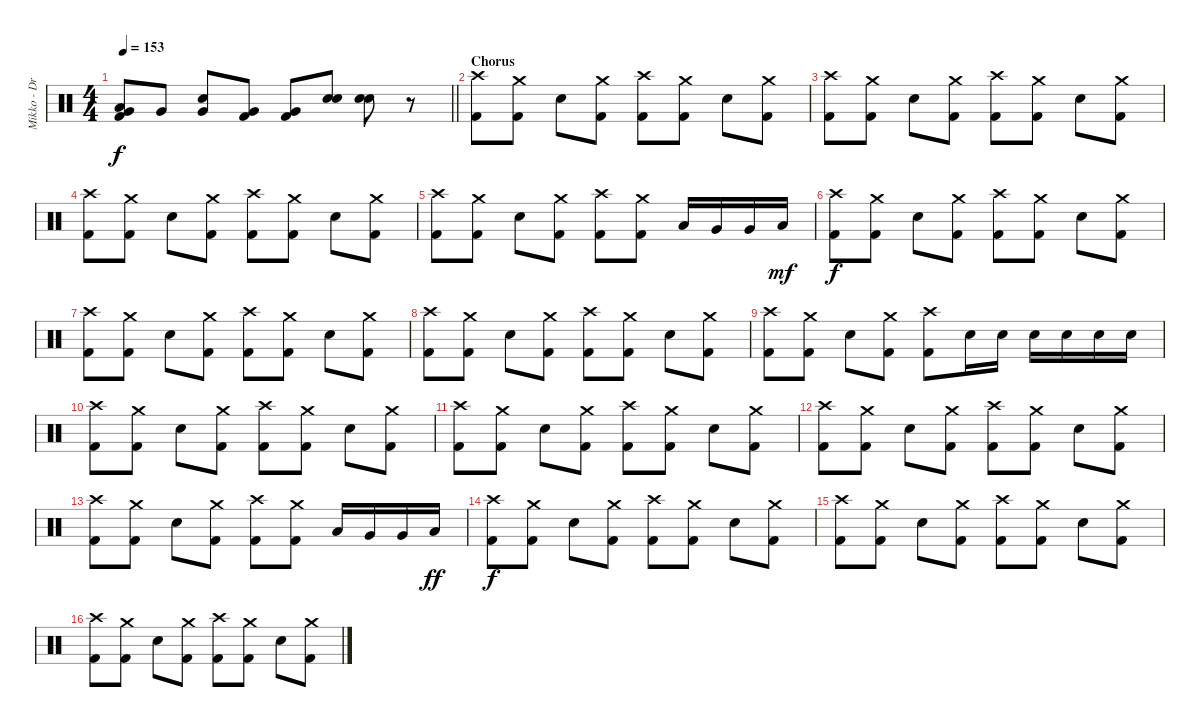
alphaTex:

\track ("Mikko - Drums" "Mikko - Dr") {instrument percussion}
\staff {score}
\articulation defaults
\ts (4 4)
\tempo 153
\clef neutral
\barLineRight lightlight
\ks c
("Low Tom (hit)" "Very Low Tom (hit)" "Kick (hit) 2").8{dy f} "Very Low Tom (hit)".8 ("Snare (hit) 2" "Very Low Tom (hit)").8 ("Very Low Tom (hit)" "Kick (hit) 2").8 ("Very Low Tom (hit)" "Kick (hit) 2").8 ("Hand Clap (hit)" "Snare (hit) 2").8 ("Hand Clap (hit)" "Snare (hit) 2").8 r.8 |
\section ("" "Chorus")
("Crash high (hit)" "Kick (hit) 2").8 ("Crash medium (hit)" "Kick (hit) 2").8 "Snare (hit) 2".8 ("Crash medium (hit)" "Kick (hit) 2").8 ("Crash high (hit)" "Kick (hit) 2").8 ("Crash medium (hit)" "Kick (hit) 2").8 "Snare (hit) 2".8 ("Crash medium (hit)" "Kick (hit) 2").8 |
("Crash high (hit)" "Kick (hit) 2").8 ("Crash medium (hit)" "Kick (hit) 2").8 "Snare (hit) 2".8 ("Crash medium (hit)" "Kick (hit) 2").8 ("Crash high (hit)" "Kick (hit) 2").8 ("Crash medium (hit)" "Kick (hit) 2").8 "Snare (hit) 2".8 ("Crash medium (hit)" "Kick (hit) 2").8 |
("Crash high (hit)" "Kick (hit) 2").8 ("Crash medium (hit)" "Kick (hit) 2").8 "Snare (hit) 2".8 ("Crash medium (hit)" "Kick (hit) 2").8 ("Crash high (hit)" "Kick (hit) 2").8 ("Crash medium (hit)" "Kick (hit) 2").8 "Snare (hit) 2".8 ("Crash medium (hit)" "Kick (hit) 2").8 |
("Crash high (hit)" "Kick (hit) 2").8 ("Crash medium (hit)" "Kick (hit) 2").8 "Snare (hit) 2".8 ("Crash medium (hit)" "Kick (hit) 2").8 ("Crash high (hit)" "Kick (hit) 2").8 ("Crash medium (hit)" "Kick (hit) 2").8 "Low Tom (hit)".16 "Very Low Tom (hit)".16 "Very Low Tom (hit)".16 "Low Tom (hit)".16{dy mf} |
("Crash high (hit)" "Kick (hit) 2").8{dy f} ("Crash medium (hit)" "Kick (hit) 2").8 "Snare (hit) 2".8 ("Crash medium (hit)" "Kick (hit) 2").8 ("Crash high (hit)" "Kick (hit) 2").8 ("Crash medium (hit)" "Kick (hit) 2").8 "Snare (hit) 2".8 ("Crash medium (hit)" "Kick (hit) 2").8 |
("Crash high (hit)" "Kick (hit) 2").8 ("Crash medium (hit)" "Kick (hit) 2").8 "Snare (hit) 2".8 ("Crash medium (hit)" "Kick (hit) 2").8 ("Crash high (hit)" "Kick (hit) 2").8 ("Crash medium (hit)" "Kick (hit) 2").8 "Snare (hit) 2".8 ("Crash medium (hit)" "Kick (hit) 2").8 |
("Crash high (hit)" "Kick (hit) 2").8 ("Crash medium (hit)" "Kick (hit) 2").8 "Snare (hit) 2".8 ("Crash medium (hit)" "Kick (hit) 2").8 ("Crash high (hit)" "Kick (hit) 2").8 ("Crash medium (hit)" "Kick (hit) 2").8 "Snare (hit) 2".8 ("Crash medium (hit)" "Kick (hit) 2").8 |
("Crash high (hit)" "Kick (hit) 2").8 ("Crash medium (hit)" "Kick (hit) 2").8 "Snare (hit) 2".8 ("Crash medium (hit)" "Kick (hit) 2").8 ("Crash high (hit)" "Kick (hit) 2").8 "Snare (hit) 2".16 "Snare (hit) 2".16 "Snare (hit) 2".16 "Snare (hit) 2".16 "Snare (hit) 2".16 "Snare (hit) 2".16 |
("Crash high (hit)" "Kick (hit) 2").8 ("Crash medium (hit)" "Kick (hit) 2").8 "Snare (hit) 2".8 ("Crash medium (hit)" "Kick (hit) 2").8 ("Crash high (hit)" "Kick (hit) 2").8 ("Crash medium (hit)" "Kick (hit) 2").8 "Snare (hit) 2".8 ("Crash medium (hit)" "Kick (hit) 2").8 |
("Crash high (hit)" "Kick (hit) 2").8 ("Crash medium (hit)" "Kick (hit) 2").8 "Snare (hit) 2".8 ("Crash medium (hit)" "Kick (hit) 2").8 ("Crash high (hit)" "Kick (hit) 2").8 ("Crash medium (hit)" "Kick (hit) 2").8 "Snare (hit) 2".8 ("Crash medium (hit)" "Kick (hit) 2").8 |
("Crash high (hit)" "Kick (hit) 2").8 ("Crash medium (hit)" "Kick (hit) 2").8 "Snare (hit) 2".8 ("Crash medium (hit)" "Kick (hit) 2").8 ("Crash high (hit)" "Kick (hit) 2").8 ("Crash medium (hit)" "Kick (hit) 2").8 "Snare (hit) 2".8 ("Crash medium (hit)" "Kick (hit) 2").8 |
("Crash high (hit)" "Kick (hit) 2").8 ("Crash medium (hit)" "Kick (hit) 2").8 "Snare (hit) 2".8 ("Crash medium (hit)" "Kick (hit) 2").8 ("Crash high (hit)" "Kick (hit) 2").8 ("Crash medium (hit)" "Kick (hit) 2").8 "Low Tom (hit)".16 "Very Low Tom (hit)".16 "Very Low Tom (hit)".16 "Low Tom (hit)".16{dy ff} |
("Crash high (hit)" "Kick (hit) 2").8{dy f} ("Crash medium (hit)" "Kick (hit) 2").8 "Snare (hit) 2".8 ("Crash medium (hit)" "Kick (hit) 2").8 ("Crash high (hit)" "Kick (hit) 2").8 ("Crash medium (hit)" "Kick (hit) 2").8 "Snare (hit) 2".8 ("Crash medium (hit)" "Kick (hit) 2").8 |
("Crash high (hit)" "Kick (hit) 2").8 ("Crash medium (hit)" "Kick (hit) 2").8 "Snare (hit) 2".8 ("Crash medium (hit)" "Kick (hit) 2").8 ("Crash high (hit)" "Kick (hit) 2").8 ("Crash medium (hit)" "Kick (hit) 2").8 "Snare (hit) 2".8 ("Crash medium (hit)" "Kick (hit) 2").8 |
("Crash high (hit)" "Kick (hit) 2").8 ("Crash medium (hit)" "Kick (hit) 2").8 "Snare (hit) 2".8 ("Crash medium (hit)" "Kick (hit) 2").8 ("Crash high (hit)" "Kick (hit) 2").8 ("Crash medium (hit)" "Kick (hit) 2").8 "Snare (hit) 2".8 ("Crash medium (hit)" "Kick (hit) 2").8
